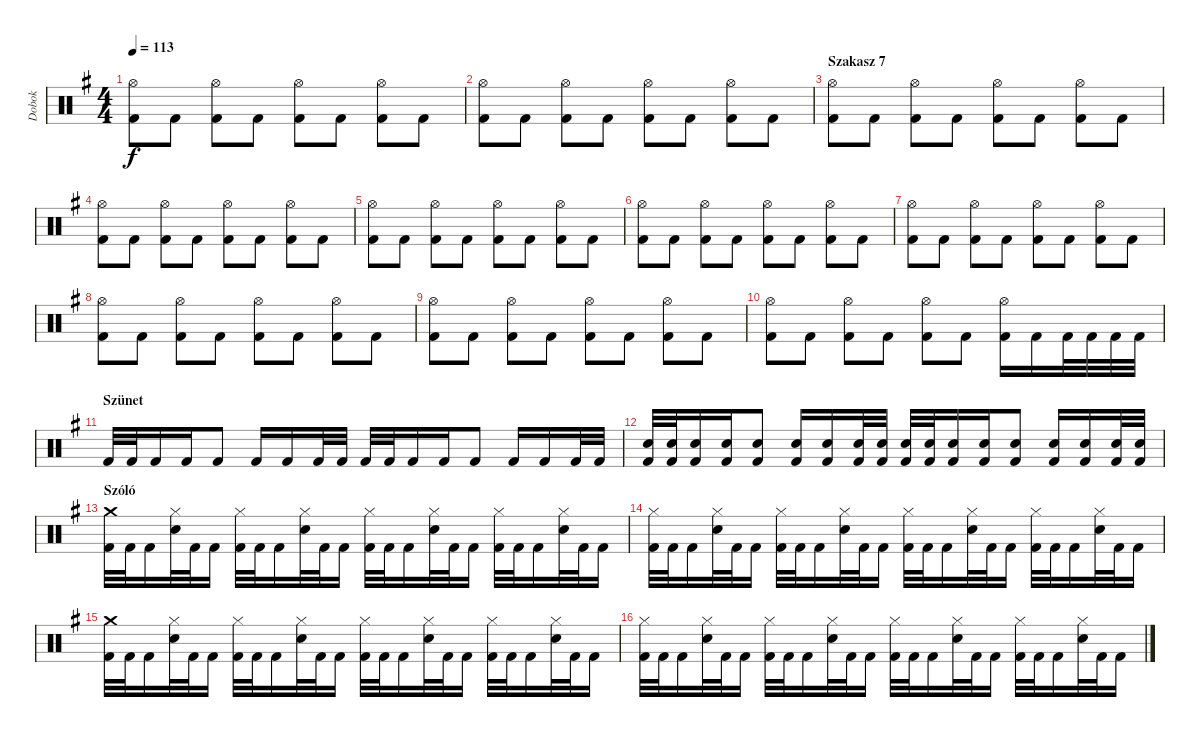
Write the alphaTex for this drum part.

\track ("Dobok" "Dobok") {instrument percussion}
\staff {score}
\articulation defaults
\ts (4 4)
\tempo 113
\clef neutral
\ks g
("Hi-Hat (open)" "Kick (hit) 2").8{dy f} "Kick (hit) 2".8 ("Hi-Hat (open)" "Kick (hit) 2").8 "Kick (hit) 2".8 ("Hi-Hat (open)" "Kick (hit) 2").8 "Kick (hit) 2".8 ("Hi-Hat (open)" "Kick (hit) 2").8 "Kick (hit) 2".8 |
("Hi-Hat (open)" "Kick (hit) 2").8 "Kick (hit) 2".8 ("Hi-Hat (open)" "Kick (hit) 2").8 "Kick (hit) 2".8 ("Hi-Hat (open)" "Kick (hit) 2").8 "Kick (hit) 2".8 ("Hi-Hat (open)" "Kick (hit) 2").8 "Kick (hit) 2".8 |
\section ("" "Szakasz 7")
("Hi-Hat (open)" "Kick (hit) 2").8 "Kick (hit) 2".8 ("Hi-Hat (open)" "Kick (hit) 2").8 "Kick (hit) 2".8 ("Hi-Hat (open)" "Kick (hit) 2").8 "Kick (hit) 2".8 ("Hi-Hat (open)" "Kick (hit) 2").8 "Kick (hit) 2".8 |
("Hi-Hat (open)" "Kick (hit) 2").8 "Kick (hit) 2".8 ("Hi-Hat (open)" "Kick (hit) 2").8 "Kick (hit) 2".8 ("Hi-Hat (open)" "Kick (hit) 2").8 "Kick (hit) 2".8 ("Hi-Hat (open)" "Kick (hit) 2").8 "Kick (hit) 2".8 |
("Hi-Hat (open)" "Kick (hit) 2").8 "Kick (hit) 2".8 ("Hi-Hat (open)" "Kick (hit) 2").8 "Kick (hit) 2".8 ("Hi-Hat (open)" "Kick (hit) 2").8 "Kick (hit) 2".8 ("Hi-Hat (open)" "Kick (hit) 2").8 "Kick (hit) 2".8 |
("Hi-Hat (open)" "Kick (hit) 2").8 "Kick (hit) 2".8 ("Hi-Hat (open)" "Kick (hit) 2").8 "Kick (hit) 2".8 ("Hi-Hat (open)" "Kick (hit) 2").8 "Kick (hit) 2".8 ("Hi-Hat (open)" "Kick (hit) 2").8 "Kick (hit) 2".8 |
("Hi-Hat (open)" "Kick (hit) 2").8 "Kick (hit) 2".8 ("Hi-Hat (open)" "Kick (hit) 2").8 "Kick (hit) 2".8 ("Hi-Hat (open)" "Kick (hit) 2").8 "Kick (hit) 2".8 ("Hi-Hat (open)" "Kick (hit) 2").8 "Kick (hit) 2".8 |
("Hi-Hat (open)" "Kick (hit) 2").8 "Kick (hit) 2".8 ("Hi-Hat (open)" "Kick (hit) 2").8 "Kick (hit) 2".8 ("Hi-Hat (open)" "Kick (hit) 2").8 "Kick (hit) 2".8 ("Hi-Hat (open)" "Kick (hit) 2").8 "Kick (hit) 2".8 |
("Hi-Hat (open)" "Kick (hit) 2").8 "Kick (hit) 2".8 ("Hi-Hat (open)" "Kick (hit) 2").8 "Kick (hit) 2".8 ("Hi-Hat (open)" "Kick (hit) 2").8 "Kick (hit) 2".8 ("Hi-Hat (open)" "Kick (hit) 2").8 "Kick (hit) 2".8 |
("Hi-Hat (open)" "Kick (hit) 2").8 "Kick (hit) 2".8 ("Hi-Hat (open)" "Kick (hit) 2").8 "Kick (hit) 2".8 ("Hi-Hat (open)" "Kick (hit) 2").8 "Kick (hit) 2".8 ("Hi-Hat (open)" "Kick (hit) 2").16 "Kick (hit) 2".16 "Kick (hit) 2".32 "Kick (hit) 2".32 "Kick (hit) 2".32 "Kick (hit) 2".32 |
\section ("" "Szünet")
"Kick (hit) 2".32 "Kick (hit) 2".32 "Kick (hit) 2".16 "Kick (hit) 2".16 "Kick (hit) 2".8 "Kick (hit) 2".16 "Kick (hit) 2".16 "Kick (hit) 2".32 "Kick (hit) 2".32 "Kick (hit) 2".32 "Kick (hit) 2".32 "Kick (hit) 2".16 "Kick (hit) 2".16 "Kick (hit) 2".8 "Kick (hit) 2".16 "Kick (hit) 2".16 "Kick (hit) 2".32 "Kick (hit) 2".32 |
("Snare (hit) 2" "Kick (hit) 2").32 ("Snare (hit) 2" "Kick (hit) 2").32 ("Snare (hit) 2" "Kick (hit) 2").16 ("Snare (hit) 2" "Kick (hit) 2").16 ("Snare (hit) 2" "Kick (hit) 2").8 ("Snare (hit) 2" "Kick (hit) 2").16 ("Snare (hit) 2" "Kick (hit) 2").16 ("Snare (hit) 2" "Kick (hit) 2").32 ("Snare (hit) 2" "Kick (hit) 2").32 ("Snare (hit) 2" "Kick (hit) 2").32 ("Snare (hit) 2" "Kick (hit) 2").32 ("Snare (hit) 2" "Kick (hit) 2").16 ("Snare (hit) 2" "Kick (hit) 2").16 ("Snare (hit) 2" "Kick (hit) 2").8 ("Snare (hit) 2" "Kick (hit) 2").16 ("Snare (hit) 2" "Kick (hit) 2").16 ("Snare (hit) 2" "Kick (hit) 2").32 ("Snare (hit) 2" "Kick (hit) 2").32 |
\section ("" "Szóló")
("Crash medium (hit)" "Kick (hit) 2").32 "Kick (hit) 2".32 "Kick (hit) 2".16 ("Hi-Hat (closed)" "Snare (hit) 2").32 "Kick (hit) 2".32 "Kick (hit) 2".16 ("Hi-Hat (closed)" "Kick (hit) 2").32 "Kick (hit) 2".32 "Kick (hit) 2".16 ("Hi-Hat (closed)" "Snare (hit) 2").32 "Kick (hit) 2".32 "Kick (hit) 2".16 ("Hi-Hat (closed)" "Kick (hit) 2").32 "Kick (hit) 2".32 "Kick (hit) 2".16 ("Hi-Hat (closed)" "Snare (hit) 2").32 "Kick (hit) 2".32 "Kick (hit) 2".16 ("Hi-Hat (closed)" "Kick (hit) 2").32 "Kick (hit) 2".32 "Kick (hit) 2".16 ("Hi-Hat (closed)" "Snare (hit) 2").32 "Kick (hit) 2".32 "Kick (hit) 2".16 |
("Hi-Hat (closed)" "Kick (hit) 2").32 "Kick (hit) 2".32 "Kick (hit) 2".16 ("Hi-Hat (closed)" "Snare (hit) 2").32 "Kick (hit) 2".32 "Kick (hit) 2".16 ("Hi-Hat (closed)" "Kick (hit) 2").32 "Kick (hit) 2".32 "Kick (hit) 2".16 ("Hi-Hat (closed)" "Snare (hit) 2").32 "Kick (hit) 2".32 "Kick (hit) 2".16 ("Hi-Hat (closed)" "Kick (hit) 2").32 "Kick (hit) 2".32 "Kick (hit) 2".16 ("Hi-Hat (closed)" "Snare (hit) 2").32 "Kick (hit) 2".32 "Kick (hit) 2".16 ("Hi-Hat (closed)" "Kick (hit) 2").32 "Kick (hit) 2".32 "Kick (hit) 2".16 ("Hi-Hat (closed)" "Snare (hit) 2").32 "Kick (hit) 2".32 "Kick (hit) 2".16 |
("Crash medium (hit)" "Kick (hit) 2").32 "Kick (hit) 2".32 "Kick (hit) 2".16 ("Hi-Hat (closed)" "Snare (hit) 2").32 "Kick (hit) 2".32 "Kick (hit) 2".16 ("Hi-Hat (closed)" "Kick (hit) 2").32 "Kick (hit) 2".32 "Kick (hit) 2".16 ("Hi-Hat (closed)" "Snare (hit) 2").32 "Kick (hit) 2".32 "Kick (hit) 2".16 ("Hi-Hat (closed)" "Kick (hit) 2").32 "Kick (hit) 2".32 "Kick (hit) 2".16 ("Hi-Hat (closed)" "Snare (hit) 2").32 "Kick (hit) 2".32 "Kick (hit) 2".16 ("Hi-Hat (closed)" "Kick (hit) 2").32 "Kick (hit) 2".32 "Kick (hit) 2".16 ("Hi-Hat (closed)" "Snare (hit) 2").32 "Kick (hit) 2".32 "Kick (hit) 2".16 |
("Hi-Hat (closed)" "Kick (hit) 2").32 "Kick (hit) 2".32 "Kick (hit) 2".16 ("Hi-Hat (closed)" "Snare (hit) 2").32 "Kick (hit) 2".32 "Kick (hit) 2".16 ("Hi-Hat (closed)" "Kick (hit) 2").32 "Kick (hit) 2".32 "Kick (hit) 2".16 ("Hi-Hat (closed)" "Snare (hit) 2").32 "Kick (hit) 2".32 "Kick (hit) 2".16 ("Hi-Hat (closed)" "Kick (hit) 2").32 "Kick (hit) 2".32 "Kick (hit) 2".16 ("Hi-Hat (closed)" "Snare (hit) 2").32 "Kick (hit) 2".32 "Kick (hit) 2".16 ("Hi-Hat (closed)" "Kick (hit) 2").32 "Kick (hit) 2".32 "Kick (hit) 2".16 ("Hi-Hat (closed)" "Snare (hit) 2").32 "Kick (hit) 2".32 "Kick (hit) 2".16
